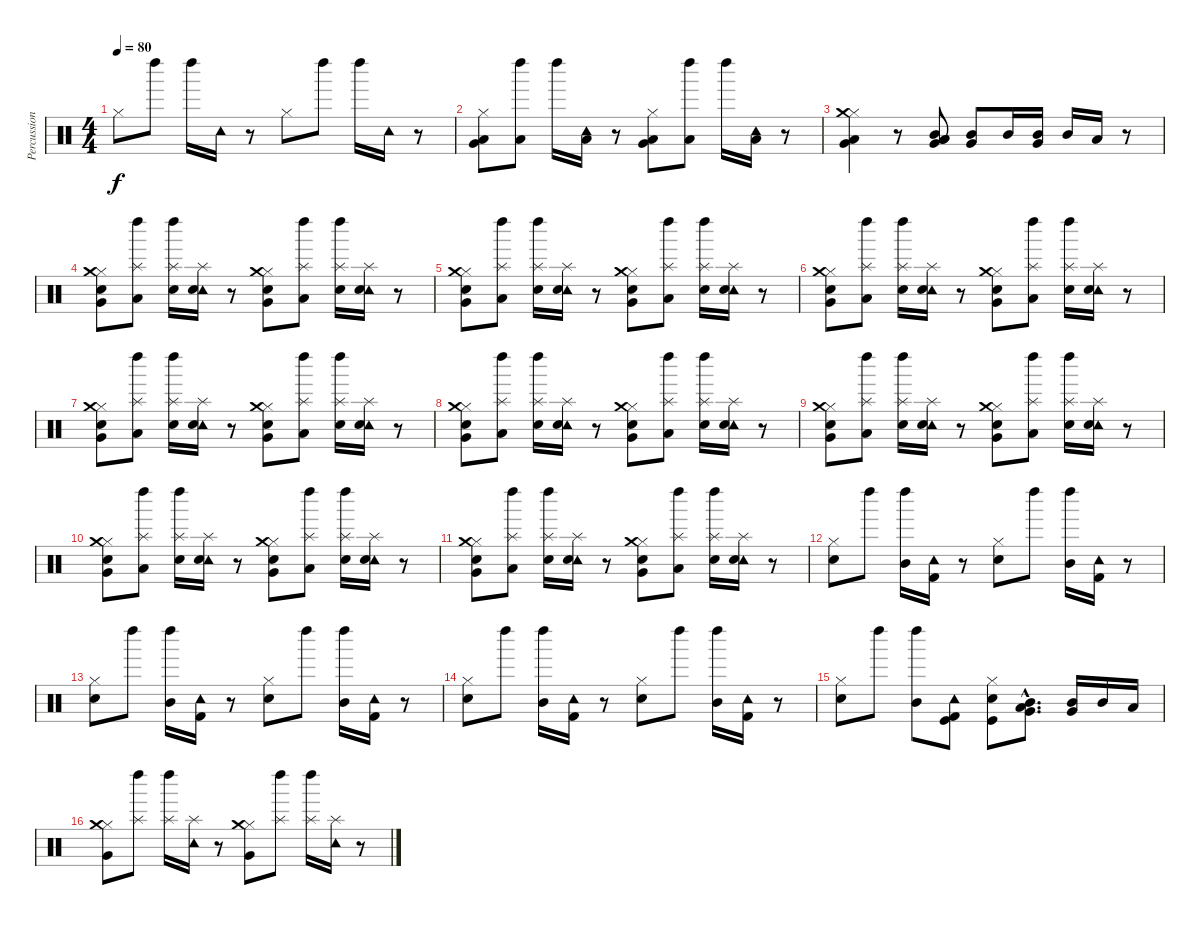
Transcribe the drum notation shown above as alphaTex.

\track ("Percussion" "Percussion") {instrument percussion}
\staff {score}
\articulation defaults
\ts (4 4)
\tempo 80
\clef neutral
\ks c "Hi-Hat (closed)".8{dy f} "Left Maraca (hit)".8 "Left Maraca (hit)".16 "Tambourine (hit)".16
r.8 "Hi-Hat (closed)".8 "Left Maraca (hit)".8 "Left Maraca (hit)".16 "Tambourine (hit)".16 r.8 |
("Hi-Hat (closed)" "Very Low Tom (hit)" "Low Tom (hit)").8 ("Left Maraca (hit)" "Low Tom (hit)").8 "Left Maraca (hit)".16 ("Tambourine (hit)" "Low Tom (hit)").16 r.8 ("Hi-Hat (closed)" "Very Low Tom (hit)" "Low Tom (hit)").8 ("Left Maraca (hit)" "Low Tom (hit)").8 "Left Maraca (hit)".16 ("Tambourine (hit)" "Low Tom (hit)").16 r.8 |
("Hi-Hat (closed)" "Very Low Tom (hit)" "Crash medium (hit)" "Low Tom (hit)").4 r.8 ("Low Floor Tom (hit)" "Mid Tom (hit)" "Very Low Tom (hit)" "Low Tom (hit)").8 ("Very Low Tom (hit)" "Mid Tom (hit)").8 "Mid Tom (hit)".16 ("Very Low Tom (hit)" "Mid Tom (hit)").16 "Mid Tom (hit)".16 "Low Tom (hit)".16 r.8 |
("Hi-Hat (closed)" "Very Low Tom (hit)" "Crash medium (hit)" "Electric Snare (hit)").8 ("Left Maraca (hit)" "Splash (hit)" "Low Tom (hit)").8 ("Left Maraca (hit)" "Splash (hit)" "Electric Snare (hit)").16 ("Tambourine (hit)" "Splash (hit)" "Electric Snare (hit)").16 r.8 ("Hi-Hat (closed)" "Very Low Tom (hit)" "Crash medium (hit)" "Electric Snare (hit)").8 ("Left Maraca (hit)" "Splash (hit)" "Low Tom (hit)").8 ("Left Maraca (hit)" "Splash (hit)" "Electric Snare (hit)").16 ("Tambourine (hit)" "Splash (hit)" "Electric Snare (hit)").16 r.8 |
("Hi-Hat (closed)" "Very Low Tom (hit)" "Crash medium (hit)" "Electric Snare (hit)").8 ("Left Maraca (hit)" "Splash (hit)" "Low Tom (hit)").8 ("Left Maraca (hit)" "Splash (hit)" "Electric Snare (hit)").16 ("Tambourine (hit)" "Splash (hit)" "Electric Snare (hit)").16 r.8 ("Hi-Hat (closed)" "Very Low Tom (hit)" "Crash medium (hit)" "Electric Snare (hit)").8 ("Left Maraca (hit)" "Splash (hit)" "Low Tom (hit)").8 ("Left Maraca (hit)" "Splash (hit)" "Electric Snare (hit)").16 ("Tambourine (hit)" "Splash (hit)" "Electric Snare (hit)").16 r.8 |
("Hi-Hat (closed)" "Very Low Tom (hit)" "Crash medium (hit)" "Electric Snare (hit)").8 ("Left Maraca (hit)" "Splash (hit)" "Low Tom (hit)").8 ("Left Maraca (hit)" "Splash (hit)" "Electric Snare (hit)").16 ("Tambourine (hit)" "Splash (hit)" "Electric Snare (hit)").16 r.8 ("Hi-Hat (closed)" "Very Low Tom (hit)" "Crash medium (hit)" "Electric Snare (hit)").8 ("Left Maraca (hit)" "Splash (hit)" "Low Tom (hit)").8 ("Left Maraca (hit)" "Splash (hit)" "Electric Snare (hit)").16 ("Tambourine (hit)" "Splash (hit)" "Electric Snare (hit)").16 r.8 |
("Hi-Hat (closed)" "Very Low Tom (hit)" "Crash medium (hit)" "Electric Snare (hit)").8 ("Left Maraca (hit)" "Splash (hit)" "Low Tom (hit)").8 ("Left Maraca (hit)" "Splash (hit)" "Electric Snare (hit)").16 ("Tambourine (hit)" "Splash (hit)" "Electric Snare (hit)").16 r.8 ("Hi-Hat (closed)" "Very Low Tom (hit)" "Crash medium (hit)" "Electric Snare (hit)").8 ("Left Maraca (hit)" "Splash (hit)" "Low Tom (hit)").8 ("Left Maraca (hit)" "Splash (hit)" "Electric Snare (hit)").16 ("Tambourine (hit)" "Splash (hit)" "Electric Snare (hit)").16 r.8 |
("Hi-Hat (closed)" "Very Low Tom (hit)" "Crash medium (hit)" "Electric Snare (hit)").8 ("Left Maraca (hit)" "Splash (hit)" "Low Tom (hit)").8 ("Left Maraca (hit)" "Splash (hit)" "Electric Snare (hit)").16 ("Tambourine (hit)" "Splash (hit)" "Electric Snare (hit)").16 r.8 ("Hi-Hat (closed)" "Very Low Tom (hit)" "Crash medium (hit)" "Electric Snare (hit)").8 ("Left Maraca (hit)" "Splash (hit)" "Low Tom (hit)").8 ("Left Maraca (hit)" "Splash (hit)" "Electric Snare (hit)").16 ("Tambourine (hit)" "Splash (hit)" "Electric Snare (hit)").16 r.8 |
("Hi-Hat (closed)" "Very Low Tom (hit)" "Crash medium (hit)" "Electric Snare (hit)").8 ("Left Maraca (hit)" "Splash (hit)" "Low Tom (hit)").8 ("Left Maraca (hit)" "Splash (hit)" "Electric Snare (hit)").16 ("Tambourine (hit)" "Splash (hit)" "Electric Snare (hit)").16 r.8 ("Hi-Hat (closed)" "Very Low Tom (hit)" "Crash medium (hit)" "Electric Snare (hit)").8 ("Left Maraca (hit)" "Splash (hit)" "Low Tom (hit)").8 ("Left Maraca (hit)" "Splash (hit)" "Electric Snare (hit)").16 ("Tambourine (hit)" "Splash (hit)" "Electric Snare (hit)").16 r.8 |
("Hi-Hat (closed)" "Very Low Tom (hit)" "Crash medium (hit)" "Electric Snare (hit)").8 ("Left Maraca (hit)" "Splash (hit)" "Low Tom (hit)").8 ("Left Maraca (hit)" "Splash (hit)" "Electric Snare (hit)").16 ("Tambourine (hit)" "Splash (hit)" "Electric Snare (hit)").16 r.8 ("Hi-Hat (closed)" "Very Low Tom (hit)" "Crash medium (hit)" "Electric Snare (hit)").8 ("Left Maraca (hit)" "Splash (hit)" "Low Tom (hit)").8 ("Left Maraca (hit)" "Splash (hit)" "Electric Snare (hit)").16 ("Tambourine (hit)" "Splash (hit)" "Electric Snare (hit)").16 r.8 |
("Hi-Hat (closed)" "Very Low Tom (hit)" "Crash medium (hit)" "Electric Snare (hit)").8 ("Left Maraca (hit)" "Splash (hit)" "Low Tom (hit)").8 ("Left Maraca (hit)" "Splash (hit)" "Electric Snare (hit)").16 ("Tambourine (hit)" "Splash (hit)" "Electric Snare (hit)").16 r.8 ("Hi-Hat (closed)" "Very Low Tom (hit)" "Crash medium (hit)" "Electric Snare (hit)").8 ("Left Maraca (hit)" "Splash (hit)" "Low Tom (hit)").8 ("Left Maraca (hit)" "Splash (hit)" "Electric Snare (hit)").16 ("Tambourine (hit)" "Splash (hit)" "Electric Snare (hit)").16 r.8 |
("Hi-Hat (closed)" "Electric Snare (hit)").8 "Left Maraca (hit)".8 ("Left Maraca (hit)" "Mid Tom (hit)").16 ("Tambourine (hit)" "Kick (hit) 2").16 r.8 ("Hi-Hat (closed)" "Electric Snare (hit)").8 "Left Maraca (hit)".8 ("Left Maraca (hit)" "Mid Tom (hit)").16 ("Tambourine (hit)" "Kick (hit) 2").16 r.8 |
("Hi-Hat (closed)" "Electric Snare (hit)").8 "Left Maraca (hit)".8 ("Left Maraca (hit)" "Mid Tom (hit)").16 ("Tambourine (hit)" "Kick (hit) 2").16 r.8 ("Hi-Hat (closed)" "Electric Snare (hit)").8 "Left Maraca (hit)".8 ("Left Maraca (hit)" "Mid Tom (hit)").16 ("Tambourine (hit)" "Kick (hit) 2").16 r.8 |
("Hi-Hat (closed)" "Electric Snare (hit)").8 "Left Maraca (hit)".8 ("Left Maraca (hit)" "Mid Tom (hit)").16 ("Tambourine (hit)" "Kick (hit) 2").16 r.8 ("Hi-Hat (closed)" "Electric Snare (hit)").8 "Left Maraca (hit)".8 ("Left Maraca (hit)" "Mid Tom (hit)").16 ("Tambourine (hit)" "Kick (hit) 2").16 r.8 |
("Hi-Hat (closed)" "Electric Snare (hit)").8 "Left Maraca (hit)".8 ("Left Maraca (hit)" "Mid Tom (hit)").8 ("Tambourine (hit)" "Kick (hit)" "Kick (hit) 2").8 ("Hi-Hat (closed)" "Kick (hit)" "Electric Snare (hit)").8 ("Low Floor Tom (hit)"{hac} "Mid Tom (hit)"{hac} "Very Low Tom (hit)"{hac}).8{d} ("Very Low Tom (hit)" "Mid Tom (hit)").16 "Mid Tom (hit)".16 "Low Tom (hit)".16 |
("Hi-Hat (closed)" "Very Low Tom (hit)" "Crash medium (hit)").8 ("Left Maraca (hit)" "Splash (hit)").8 ("Left Maraca (hit)" "Splash (hit)").16 ("Tambourine (hit)" "Splash (hit)").16 r.8 ("Hi-Hat (closed)" "Very Low Tom (hit)" "Crash medium (hit)").8 ("Left Maraca (hit)" "Splash (hit)").8 ("Left Maraca (hit)" "Splash (hit)").16 ("Tambourine (hit)" "Splash (hit)").16 r.8
